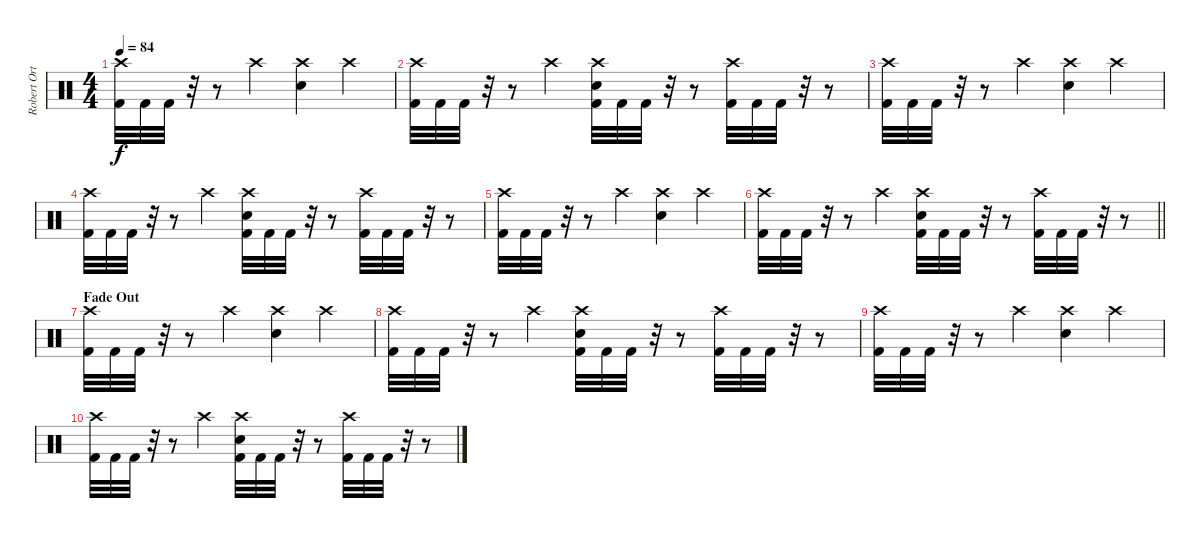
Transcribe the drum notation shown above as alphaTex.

\track ("Robert Ortiz - Drums" "Robert Ort") {instrument percussion}
\staff {score}
\articulation defaults
\ts (4 4)
\tempo 84
\clef neutral
\ks c
("Crash high (hit)" "Kick (hit) 2").32{dy f} "Kick (hit) 2".32 "Kick (hit) 2".32 r.32 r.8 "Crash high (hit)".4 ("Crash high (hit)" "Electric Snare (hit)").4 "Crash high (hit)".4 |
("Crash high (hit)" "Kick (hit) 2").32 "Kick (hit) 2".32 "Kick (hit) 2".32 r.32 r.8 "Crash high (hit)".4 ("Crash high (hit)" "Electric Snare (hit)" "Kick (hit) 2").32 "Kick (hit) 2".32 "Kick (hit) 2".32 r.32 r.8 ("Crash high (hit)" "Kick (hit) 2").32 "Kick (hit) 2".32 "Kick (hit) 2".32 r.32 r.8 |
("Crash high (hit)" "Kick (hit) 2").32 "Kick (hit) 2".32 "Kick (hit) 2".32 r.32 r.8 "Crash high (hit)".4 ("Crash high (hit)" "Electric Snare (hit)").4 "Crash high (hit)".4 |
("Crash high (hit)" "Kick (hit) 2").32 "Kick (hit) 2".32 "Kick (hit) 2".32 r.32 r.8 "Crash high (hit)".4 ("Crash high (hit)" "Electric Snare (hit)" "Kick (hit) 2").32 "Kick (hit) 2".32 "Kick (hit) 2".32 r.32 r.8 ("Crash high (hit)" "Kick (hit) 2").32 "Kick (hit) 2".32 "Kick (hit) 2".32 r.32 r.8 |
("Crash high (hit)" "Kick (hit) 2").32 "Kick (hit) 2".32 "Kick (hit) 2".32 r.32 r.8 "Crash high (hit)".4 ("Crash high (hit)" "Electric Snare (hit)").4 "Crash high (hit)".4 |
\barLineRight lightlight
("Crash high (hit)" "Kick (hit) 2").32 "Kick (hit) 2".32 "Kick (hit) 2".32 r.32 r.8 "Crash high (hit)".4 ("Crash high (hit)" "Electric Snare (hit)" "Kick (hit) 2").32 "Kick (hit) 2".32 "Kick (hit) 2".32 r.32 r.8 ("Crash high (hit)" "Kick (hit) 2").32 "Kick (hit) 2".32 "Kick (hit) 2".32 r.32 r.8 |
\section ("" "Fade Out")
("Crash high (hit)" "Kick (hit) 2").32 "Kick (hit) 2".32 "Kick (hit) 2".32 r.32 r.8 "Crash high (hit)".4 ("Crash high (hit)" "Electric Snare (hit)").4 "Crash high (hit)".4 |
("Crash high (hit)" "Kick (hit) 2").32 "Kick (hit) 2".32 "Kick (hit) 2".32 r.32 r.8 "Crash high (hit)".4 ("Crash high (hit)" "Electric Snare (hit)" "Kick (hit) 2").32 "Kick (hit) 2".32 "Kick (hit) 2".32 r.32 r.8 ("Crash high (hit)" "Kick (hit) 2").32 "Kick (hit) 2".32 "Kick (hit) 2".32 r.32 r.8 |
("Crash high (hit)" "Kick (hit) 2").32 "Kick (hit) 2".32 "Kick (hit) 2".32 r.32 r.8 "Crash high (hit)".4 ("Crash high (hit)" "Electric Snare (hit)").4 "Crash high (hit)".4 |
("Crash high (hit)" "Kick (hit) 2").32 "Kick (hit) 2".32 "Kick (hit) 2".32 r.32 r.8 "Crash high (hit)".4 ("Crash high (hit)" "Electric Snare (hit)" "Kick (hit) 2").32 "Kick (hit) 2".32 "Kick (hit) 2".32 r.32 r.8 ("Crash high (hit)" "Kick (hit) 2").32 "Kick (hit) 2".32 "Kick (hit) 2".32 r.32 r.8
